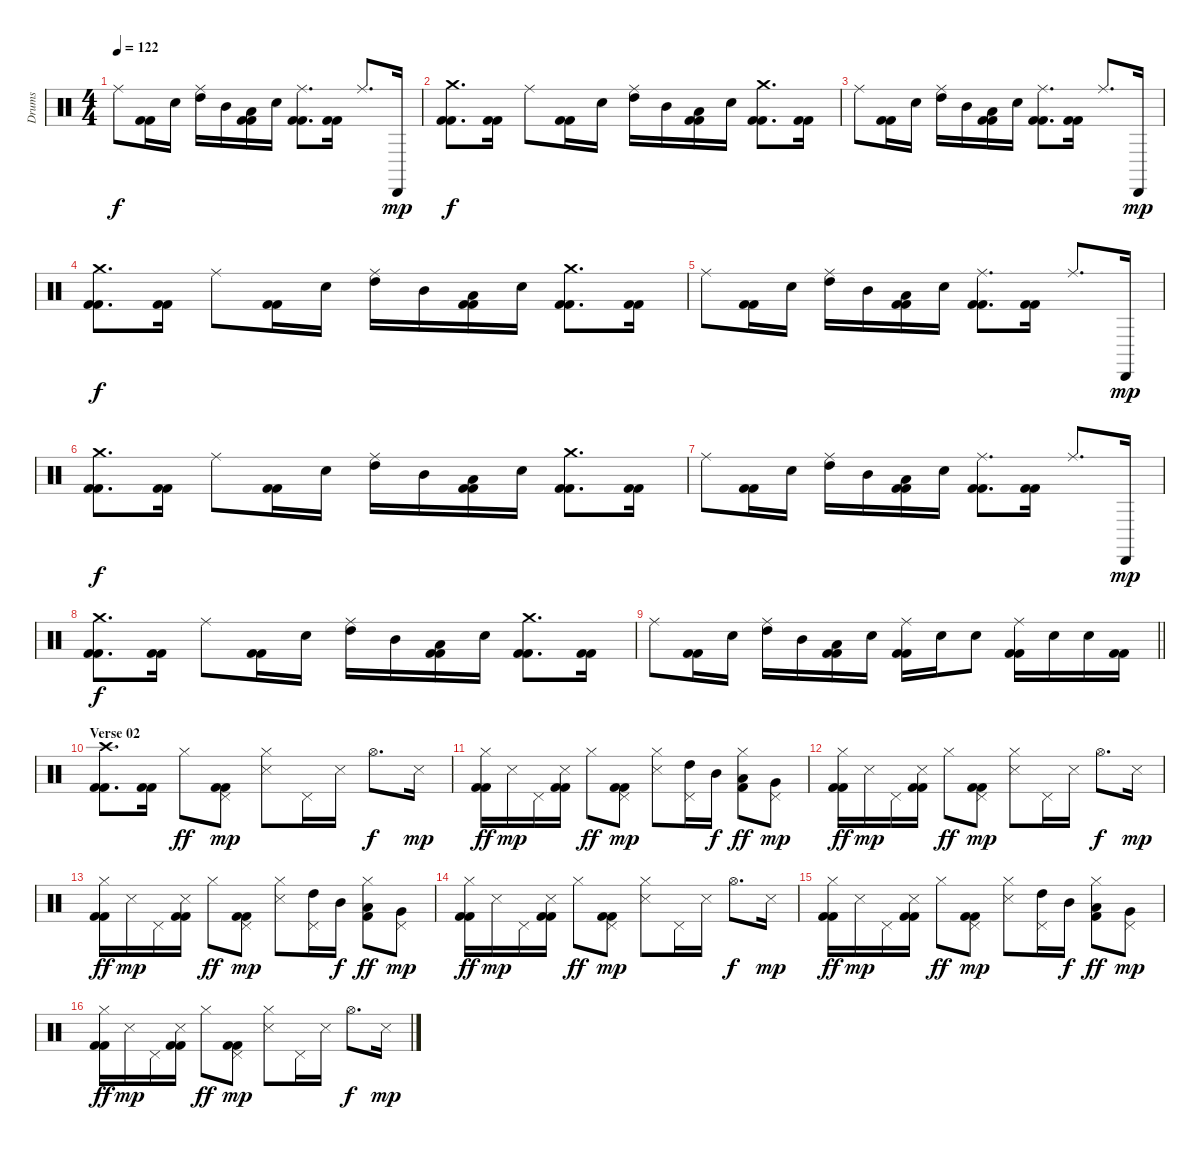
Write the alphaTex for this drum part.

\track ("Drums" "Drums") {instrument percussion}
\staff {score}
\articulation defaults
\ts (4 4)
\tempo 122
\clef neutral
\ks c "Ride (middle)".8{dy f}
("Kick (hit) 2" "Kick (hit) 2").16 "Electric Snare (hit)".16 ("Ride (middle)" "High Tom (hit)").16 "Mid Tom (hit)".16 ("Low Tom (hit)" "Kick (hit) 2" "Kick (hit) 2").16 "Electric Snare (hit)".16 ("Ride (middle)" "Kick (hit) 2" "Kick (hit) 2").8{d} ("Kick (hit) 2" "Kick (hit) 2").16 "Ride (middle)".8{d} "Cabasa (hit)".16{dy mp} |
("Crash medium (hit)" "Kick (hit) 2" "Kick (hit) 2").8{d dy f} ("Kick (hit) 2" "Kick (hit) 2").16 "Ride (middle)".8 ("Kick (hit) 2" "Kick (hit) 2").16 "Electric Snare (hit)".16 ("Ride (middle)" "High Tom (hit)").16 "Mid Tom (hit)".16 ("Low Tom (hit)" "Kick (hit) 2" "Kick (hit) 2").16 "Electric Snare (hit)".16 ("Crash medium (hit)" "Kick (hit) 2" "Kick (hit) 2").8{d} ("Kick (hit) 2" "Kick (hit) 2").16 |
"Ride (middle)".8 ("Kick (hit) 2" "Kick (hit) 2").16 "Electric Snare (hit)".16 ("Ride (middle)" "High Tom (hit)").16 "Mid Tom (hit)".16 ("Low Tom (hit)" "Kick (hit) 2" "Kick (hit) 2").16 "Electric Snare (hit)".16 ("Ride (middle)" "Kick (hit) 2" "Kick (hit) 2").8{d} ("Kick (hit) 2" "Kick (hit) 2").16 "Ride (middle)".8{d} "Cabasa (hit)".16{dy mp} |
("Crash medium (hit)" "Kick (hit) 2" "Kick (hit) 2").8{d dy f} ("Kick (hit) 2" "Kick (hit) 2").16 "Ride (middle)".8 ("Kick (hit) 2" "Kick (hit) 2").16 "Electric Snare (hit)".16 ("Ride (middle)" "High Tom (hit)").16 "Mid Tom (hit)".16 ("Low Tom (hit)" "Kick (hit) 2" "Kick (hit) 2").16 "Electric Snare (hit)".16 ("Crash medium (hit)" "Kick (hit) 2" "Kick (hit) 2").8{d} ("Kick (hit) 2" "Kick (hit) 2").16 |
"Ride (middle)".8 ("Kick (hit) 2" "Kick (hit) 2").16 "Electric Snare (hit)".16 ("Ride (middle)" "High Tom (hit)").16 "Mid Tom (hit)".16 ("Low Tom (hit)" "Kick (hit) 2" "Kick (hit) 2").16 "Electric Snare (hit)".16 ("Ride (middle)" "Kick (hit) 2" "Kick (hit) 2").8{d} ("Kick (hit) 2" "Kick (hit) 2").16 "Ride (middle)".8{d} "Cabasa (hit)".16{dy mp} |
("Crash medium (hit)" "Kick (hit) 2" "Kick (hit) 2").8{d dy f} ("Kick (hit) 2" "Kick (hit) 2").16 "Ride (middle)".8 ("Kick (hit) 2" "Kick (hit) 2").16 "Electric Snare (hit)".16 ("Ride (middle)" "High Tom (hit)").16 "Mid Tom (hit)".16 ("Low Tom (hit)" "Kick (hit) 2" "Kick (hit) 2").16 "Electric Snare (hit)".16 ("Crash medium (hit)" "Kick (hit) 2" "Kick (hit) 2").8{d} ("Kick (hit) 2" "Kick (hit) 2").16 |
"Ride (middle)".8 ("Kick (hit) 2" "Kick (hit) 2").16 "Electric Snare (hit)".16 ("Ride (middle)" "High Tom (hit)").16 "Mid Tom (hit)".16 ("Low Tom (hit)" "Kick (hit) 2" "Kick (hit) 2").16 "Electric Snare (hit)".16 ("Ride (middle)" "Kick (hit) 2" "Kick (hit) 2").8{d} ("Kick (hit) 2" "Kick (hit) 2").16 "Ride (middle)".8{d} "Cabasa (hit)".16{dy mp} |
("Crash medium (hit)" "Kick (hit) 2" "Kick (hit) 2").8{d dy f} ("Kick (hit) 2" "Kick (hit) 2").16 "Ride (middle)".8 ("Kick (hit) 2" "Kick (hit) 2").16 "Electric Snare (hit)".16 ("Ride (middle)" "High Tom (hit)").16 "Mid Tom (hit)".16 ("Low Tom (hit)" "Kick (hit) 2" "Kick (hit) 2").16 "Electric Snare (hit)".16 ("Crash medium (hit)" "Kick (hit) 2" "Kick (hit) 2").8{d} ("Kick (hit) 2" "Kick (hit) 2").16 |
\barLineRight lightlight "Ride (middle)".8
("Kick (hit) 2" "Kick (hit) 2").16 "Electric Snare (hit)".16 ("Ride (middle)" "High Tom (hit)").16 "Mid Tom (hit)".16 ("Low Tom (hit)" "Kick (hit) 2" "Kick (hit) 2").16 "Electric Snare (hit)".16 ("Ride (middle)" "Kick (hit) 2" "Kick (hit) 2").16 "Electric Snare (hit)".16 "Electric Snare (hit)".8 ("Ride (middle)" "Kick (hit) 2" "Kick (hit) 2").16 "Electric Snare (hit)".16 "Electric Snare (hit)".16 ("Kick (hit) 2" "Kick (hit) 2").16 |
\section ("" "Verse 02")
("Crash high (hit)" "Kick (hit) 2" "Kick (hit) 2").8{d} ("Kick (hit) 2" "Kick (hit) 2").16 "Hi-Hat (closed)".8{dy ff} ("Pedal Hi-Hat (hit)" "Kick (hit) 2" "Kick (hit) 2").8{dy mp} ("Hi-Hat (closed)" "Snare (side stick) 3").8 "Pedal Hi-Hat (hit)".16 "Snare (side stick) 3".16 "Hi-Hat (open)".8{d dy f} "Snare (side stick) 3".16{dy mp} |
("Hi-Hat (closed)" "Kick (hit) 2" "Kick (hit) 2").16{dy ff} "Snare (side stick) 3".16{dy mp} "Pedal Hi-Hat (hit)".16 ("Snare (side stick) 3" "Kick (hit) 2" "Kick (hit) 2").16 "Hi-Hat (closed)".8{dy ff} ("Pedal Hi-Hat (hit)" "Kick (hit) 2" "Kick (hit) 2").8{dy mp} ("Hi-Hat (closed)" "Snare (side stick) 3").8 ("Pedal Hi-Hat (hit)" "High Tom (hit)").16 "Mid Tom (hit)".16{dy f} ("Hi-Hat (closed)" "Low Tom (hit)" "Kick (hit) 2").8{dy ff} ("Pedal Hi-Hat (hit)" "Very Low Tom (hit)").8{dy mp} |
("Hi-Hat (closed)" "Kick (hit) 2" "Kick (hit) 2").16{dy ff} "Snare (side stick) 3".16{dy mp} "Pedal Hi-Hat (hit)".16 ("Snare (side stick) 3" "Kick (hit) 2" "Kick (hit) 2").16 "Hi-Hat (closed)".8{dy ff} ("Pedal Hi-Hat (hit)" "Kick (hit) 2" "Kick (hit) 2").8{dy mp} ("Hi-Hat (closed)" "Snare (side stick) 3").8 "Pedal Hi-Hat (hit)".16 "Snare (side stick) 3".16 "Hi-Hat (open)".8{d dy f} "Snare (side stick) 3".16{dy mp} |
("Hi-Hat (closed)" "Kick (hit) 2" "Kick (hit) 2").16{dy ff} "Snare (side stick) 3".16{dy mp} "Pedal Hi-Hat (hit)".16 ("Snare (side stick) 3" "Kick (hit) 2" "Kick (hit) 2").16 "Hi-Hat (closed)".8{dy ff} ("Pedal Hi-Hat (hit)" "Kick (hit) 2" "Kick (hit) 2").8{dy mp} ("Hi-Hat (closed)" "Snare (side stick) 3").8 ("Pedal Hi-Hat (hit)" "High Tom (hit)").16 "Mid Tom (hit)".16{dy f} ("Hi-Hat (closed)" "Low Tom (hit)" "Kick (hit) 2").8{dy ff} ("Pedal Hi-Hat (hit)" "Very Low Tom (hit)").8{dy mp} |
("Hi-Hat (closed)" "Kick (hit) 2" "Kick (hit) 2").16{dy ff} "Snare (side stick) 3".16{dy mp} "Pedal Hi-Hat (hit)".16 ("Snare (side stick) 3" "Kick (hit) 2" "Kick (hit) 2").16 "Hi-Hat (closed)".8{dy ff} ("Pedal Hi-Hat (hit)" "Kick (hit) 2" "Kick (hit) 2").8{dy mp} ("Hi-Hat (closed)" "Snare (side stick) 3").8 "Pedal Hi-Hat (hit)".16 "Snare (side stick) 3".16 "Hi-Hat (open)".8{d dy f} "Snare (side stick) 3".16{dy mp} |
("Hi-Hat (closed)" "Kick (hit) 2" "Kick (hit) 2").16{dy ff} "Snare (side stick) 3".16{dy mp} "Pedal Hi-Hat (hit)".16 ("Snare (side stick) 3" "Kick (hit) 2" "Kick (hit) 2").16 "Hi-Hat (closed)".8{dy ff} ("Pedal Hi-Hat (hit)" "Kick (hit) 2" "Kick (hit) 2").8{dy mp} ("Hi-Hat (closed)" "Snare (side stick) 3").8 ("Pedal Hi-Hat (hit)" "High Tom (hit)").16 "Mid Tom (hit)".16{dy f} ("Hi-Hat (closed)" "Low Tom (hit)" "Kick (hit) 2").8{dy ff} ("Pedal Hi-Hat (hit)" "Very Low Tom (hit)").8{dy mp} |
("Hi-Hat (closed)" "Kick (hit) 2" "Kick (hit) 2").16{dy ff} "Snare (side stick) 3".16{dy mp} "Pedal Hi-Hat (hit)".16 ("Snare (side stick) 3" "Kick (hit) 2" "Kick (hit) 2").16 "Hi-Hat (closed)".8{dy ff} ("Pedal Hi-Hat (hit)" "Kick (hit) 2" "Kick (hit) 2").8{dy mp} ("Hi-Hat (closed)" "Snare (side stick) 3").8 "Pedal Hi-Hat (hit)".16 "Snare (side stick) 3".16 "Hi-Hat (open)".8{d dy f} "Snare (side stick) 3".16{dy mp}
